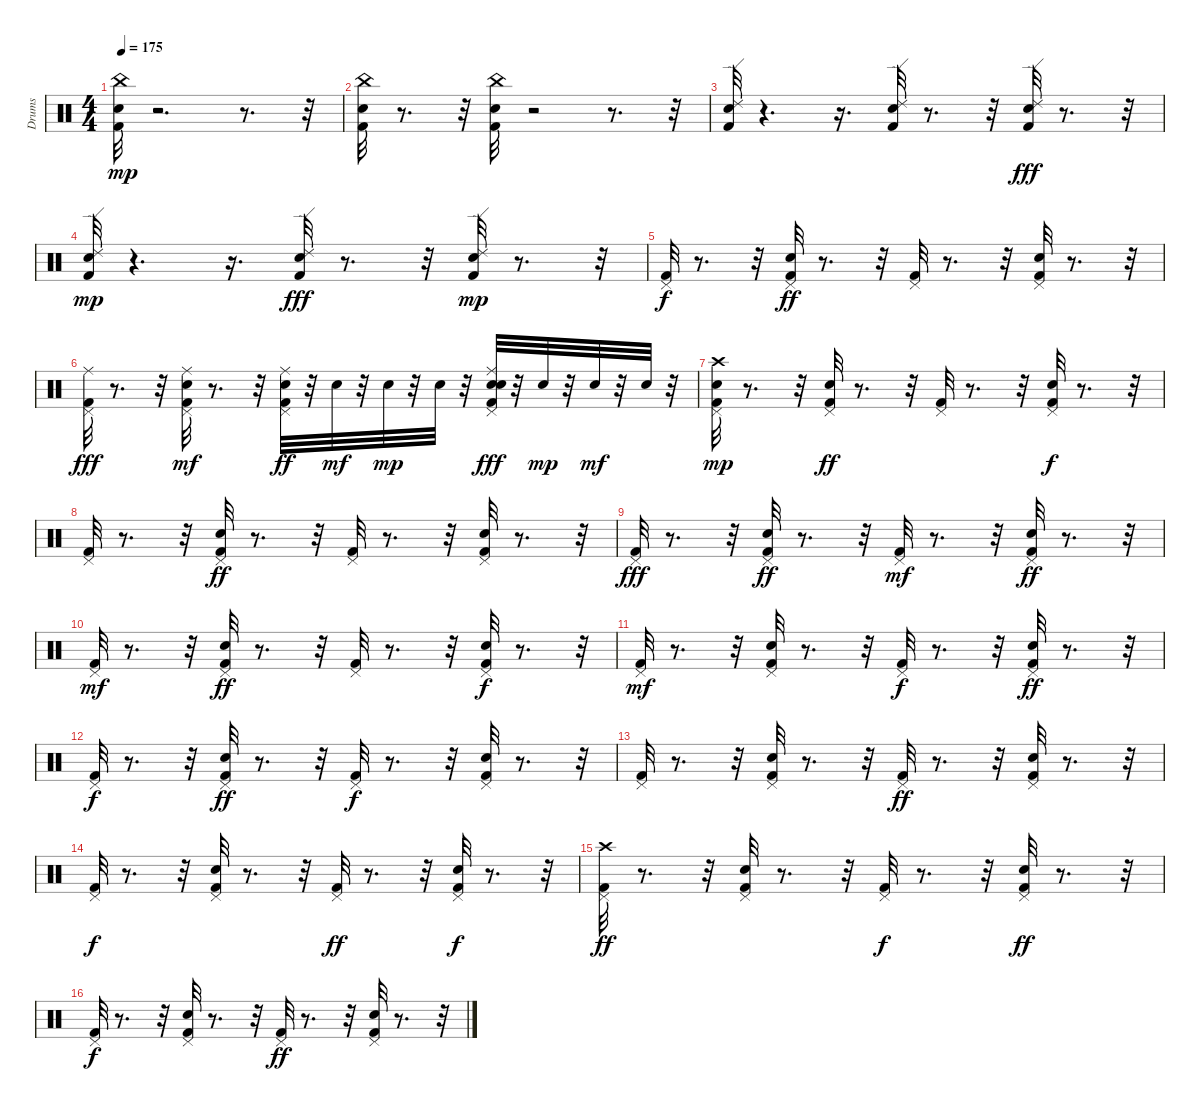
\track ("Drums" "Drums") {instrument percussion}
\staff {score}
\articulation defaults
\ts (4 4)
\tempo 175
\clef neutral
\ks c
("Kick (hit) 2" "Snare (hit) 2" "China (hit)").32{dy mp} r.2{d} r.8{d} r.32 |
("Kick (hit) 2" "Snare (hit) 2" "China (hit)").32 r.8{d} r.32 ("Snare (hit) 2" "China (hit)" "Kick (hit) 2").32 r.2 r.8{d} r.32 |
("Ride (edge) 2" "Kick (hit) 2" "Snare (hit) 2").32 r.4{d} r.16{d} ("Ride (edge) 2" "Kick (hit) 2" "Snare (hit) 2").32 r.8{d} r.32 ("Snare (hit) 2" "Kick (hit) 2" "Ride (edge) 2").32{dy fff} r.8{d} r.32 |
("Kick (hit) 2" "Ride (edge) 2" "Snare (hit) 2").32{dy mp} r.4{d} r.16{d} ("Kick (hit) 2" "Snare (hit) 2" "Ride (edge) 2").32{dy fff} r.8{d} r.32 ("Ride (edge) 2" "Snare (hit) 2" "Kick (hit) 2").32{dy mp} r.8{d} r.32 |
("Kick (hit) 2" "Pedal Hi-Hat (hit)").32{dy f} r.8{d} r.32 ("Kick (hit) 2" "Pedal Hi-Hat (hit)" "Snare (hit) 2").32{dy ff} r.8{d} r.32 ("Pedal Hi-Hat (hit)" "Kick (hit) 2").32 r.8{d} r.32 ("Snare (hit) 2" "Kick (hit) 2" "Pedal Hi-Hat (hit)").32 r.8{d} r.32 |
("Pedal Hi-Hat (hit)" "Kick (hit) 2" "Ride (middle)").32{dy fff} r.8{d} r.32 ("Kick (hit) 2" "Ride (middle)" "Pedal Hi-Hat (hit)" "Snare (hit) 2").32{dy mf} r.8{d} r.32 ("Snare (hit) 2" "Ride (middle)" "Pedal Hi-Hat (hit)" "Kick (hit) 2").32{dy ff} r.32 "Snare (hit) 2".32{dy mf} r.32 "Snare (hit) 2".32{dy mp} r.32 "Snare (hit) 2".32 r.32 ("Kick (hit) 2" "Electric Snare (hit)" "Pedal Hi-Hat (hit)" "Snare (hit) 2" "Ride (middle)").32{dy fff} r.32 "Snare (hit) 2".32{dy mp} r.32 "Snare (hit) 2".32{dy mf} r.32 "Snare (hit) 2".32 r.32 |
("Crash high (hit)" "Pedal Hi-Hat (hit)" "Kick (hit) 2" "Snare (hit) 2").32{dy mp} r.8{d} r.32 ("Kick (hit) 2" "Pedal Hi-Hat (hit)" "Snare (hit) 2").32{dy ff} r.8{d} r.32 ("Pedal Hi-Hat (hit)" "Kick (hit) 2").32 r.8{d} r.32 ("Kick (hit) 2" "Snare (hit) 2" "Pedal Hi-Hat (hit)").32{dy f} r.8{d} r.32 |
("Pedal Hi-Hat (hit)" "Kick (hit) 2").32 r.8{d} r.32 ("Kick (hit) 2" "Snare (hit) 2" "Pedal Hi-Hat (hit)").32{dy ff} r.8{d} r.32 ("Kick (hit) 2" "Pedal Hi-Hat (hit)").32 r.8{d} r.32 ("Pedal Hi-Hat (hit)" "Snare (hit) 2" "Kick (hit) 2").32 r.8{d} r.32 |
("Pedal Hi-Hat (hit)" "Kick (hit) 2").32{dy fff} r.8{d} r.32 ("Snare (hit) 2" "Kick (hit) 2" "Pedal Hi-Hat (hit)").32{dy ff} r.8{d} r.32 ("Kick (hit) 2" "Pedal Hi-Hat (hit)").32{dy mf} r.8{d} r.32 ("Kick (hit) 2" "Snare (hit) 2" "Pedal Hi-Hat (hit)").32{dy ff} r.8{d} r.32 |
("Pedal Hi-Hat (hit)" "Kick (hit) 2").32{dy mf} r.8{d} r.32 ("Snare (hit) 2" "Pedal Hi-Hat (hit)" "Kick (hit) 2").32{dy ff} r.8{d} r.32 ("Kick (hit) 2" "Pedal Hi-Hat (hit)").32 r.8{d} r.32 ("Snare (hit) 2" "Pedal Hi-Hat (hit)" "Kick (hit) 2").32{dy f} r.8{d} r.32 |
("Pedal Hi-Hat (hit)" "Kick (hit) 2").32{dy mf} r.8{d} r.32 ("Kick (hit) 2" "Snare (hit) 2" "Pedal Hi-Hat (hit)").32 r.8{d} r.32 ("Pedal Hi-Hat (hit)" "Kick (hit) 2").32{dy f} r.8{d} r.32 ("Pedal Hi-Hat (hit)" "Kick (hit) 2" "Snare (hit) 2").32{dy ff} r.8{d} r.32 |
("Pedal Hi-Hat (hit)" "Kick (hit) 2").32{dy f} r.8{d} r.32 ("Pedal Hi-Hat (hit)" "Kick (hit) 2" "Snare (hit) 2").32{dy ff} r.8{d} r.32 ("Pedal Hi-Hat (hit)" "Kick (hit) 2").32{dy f} r.8{d} r.32 ("Kick (hit) 2" "Pedal Hi-Hat (hit)" "Snare (hit) 2").32 r.8{d} r.32 |
("Pedal Hi-Hat (hit)" "Kick (hit) 2").32 r.8{d} r.32 ("Kick (hit) 2" "Snare (hit) 2" "Pedal Hi-Hat (hit)").32 r.8{d} r.32 ("Pedal Hi-Hat (hit)" "Kick (hit) 2").32{dy ff} r.8{d} r.32 ("Kick (hit) 2" "Pedal Hi-Hat (hit)" "Snare (hit) 2").32 r.8{d} r.32 |
("Pedal Hi-Hat (hit)" "Kick (hit) 2").32{dy f} r.8{d} r.32 ("Snare (hit) 2" "Kick (hit) 2" "Pedal Hi-Hat (hit)").32 r.8{d} r.32 ("Pedal Hi-Hat (hit)" "Kick (hit) 2").32{dy ff} r.8{d} r.32 ("Snare (hit) 2" "Pedal Hi-Hat (hit)" "Kick (hit) 2").32{dy f} r.8{d} r.32 |
("Kick (hit) 2" "Crash high (hit)" "Pedal Hi-Hat (hit)").32{dy ff} r.8{d} r.32 ("Snare (hit) 2" "Kick (hit) 2" "Pedal Hi-Hat (hit)").32 r.8{d} r.32 ("Kick (hit) 2" "Pedal Hi-Hat (hit)").32{dy f} r.8{d} r.32 ("Pedal Hi-Hat (hit)" "Kick (hit) 2" "Snare (hit) 2").32{dy ff} r.8{d} r.32 |
("Pedal Hi-Hat (hit)" "Kick (hit) 2").32{dy f} r.8{d} r.32 ("Pedal Hi-Hat (hit)" "Snare (hit) 2" "Kick (hit) 2").32 r.8{d} r.32 ("Kick (hit) 2" "Pedal Hi-Hat (hit)").32{dy ff} r.8{d} r.32 ("Snare (hit) 2" "Kick (hit) 2" "Pedal Hi-Hat (hit)").32 r.8{d} r.32
